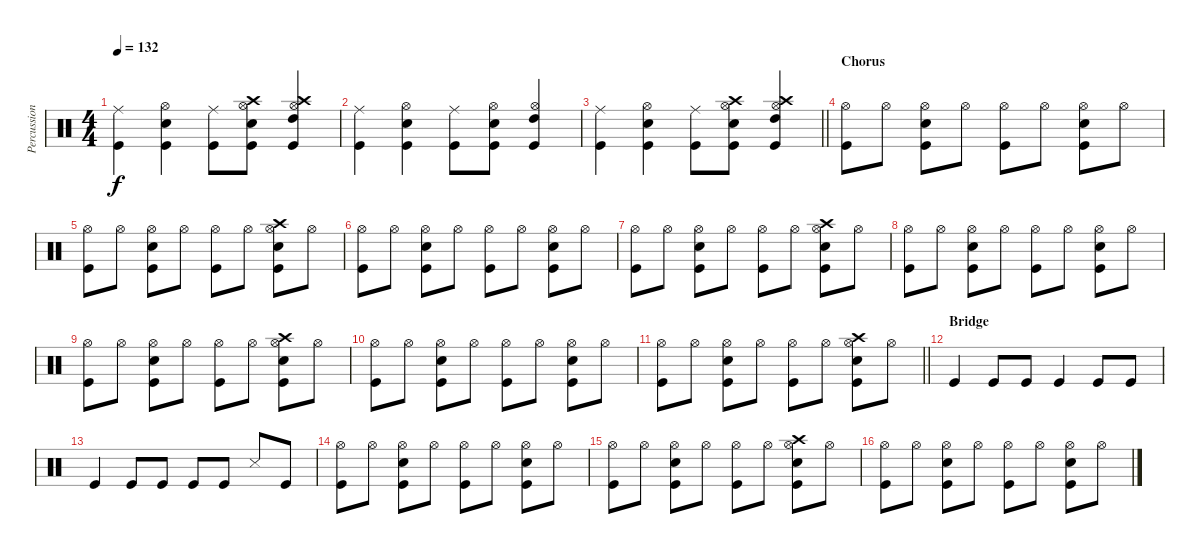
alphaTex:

\track ("Percussions" "Percussion") {instrument percussion}
\staff {score}
\articulation defaults
\ts (4 4)
\tempo 132
\clef neutral
\ks c
("Ride (middle)" "Kick (hit)").4{dy f} ("Snare (hit) 2" "Hi-Hat (open)" "Kick (hit)").4 ("Ride (middle)" "Kick (hit)").8 ("Snare (hit) 2" "Hi-Hat (open)" "Crash high (hit)" "Kick (hit)").8 ("High Tom (hit)" "Hi-Hat (open)" "Crash high (hit)" "Kick (hit)").4 |
("Ride (middle)" "Kick (hit)").4 ("Snare (hit) 2" "Hi-Hat (open)" "Kick (hit)").4 ("Ride (middle)" "Kick (hit)").8 ("Snare (hit) 2" "Hi-Hat (open)" "Kick (hit)").8 ("High Tom (hit)" "Hi-Hat (open)" "Kick (hit)").4 |
\barLineRight lightlight
("Ride (middle)" "Kick (hit)").4 ("Snare (hit) 2" "Hi-Hat (open)" "Kick (hit)").4 ("Ride (middle)" "Kick (hit)").8 ("Snare (hit) 2" "Hi-Hat (open)" "Crash high (hit)" "Kick (hit)").8 ("High Tom (hit)" "Hi-Hat (open)" "Crash high (hit)" "Kick (hit)").4 |
\section ("" "Chorus")
("Hi-Hat (open)" "Kick (hit)").8 "Hi-Hat (open)".8 ("Snare (hit) 2" "Hi-Hat (open)" "Kick (hit)").8 "Hi-Hat (open)".8 ("Hi-Hat (open)" "Kick (hit)").8 "Hi-Hat (open)".8 ("Snare (hit) 2" "Hi-Hat (open)" "Kick (hit)").8 "Hi-Hat (open)".8 |
("Hi-Hat (open)" "Kick (hit)").8 "Hi-Hat (open)".8 ("Snare (hit) 2" "Hi-Hat (open)" "Kick (hit)").8 "Hi-Hat (open)".8 ("Hi-Hat (open)" "Kick (hit)").8 "Hi-Hat (open)".8 ("Snare (hit) 2" "Hi-Hat (open)" "Crash high (hit)" "Kick (hit)").8 "Hi-Hat (open)".8 |
("Hi-Hat (open)" "Kick (hit)").8 "Hi-Hat (open)".8 ("Snare (hit) 2" "Hi-Hat (open)" "Kick (hit)").8 "Hi-Hat (open)".8 ("Hi-Hat (open)" "Kick (hit)").8 "Hi-Hat (open)".8 ("Snare (hit) 2" "Hi-Hat (open)" "Kick (hit)").8 "Hi-Hat (open)".8 |
("Hi-Hat (open)" "Kick (hit)").8 "Hi-Hat (open)".8 ("Snare (hit) 2" "Hi-Hat (open)" "Kick (hit)").8 "Hi-Hat (open)".8 ("Hi-Hat (open)" "Kick (hit)").8 "Hi-Hat (open)".8 ("Snare (hit) 2" "Hi-Hat (open)" "Crash high (hit)" "Kick (hit)").8 "Hi-Hat (open)".8 |
("Hi-Hat (open)" "Kick (hit)").8 "Hi-Hat (open)".8 ("Snare (hit) 2" "Hi-Hat (open)" "Kick (hit)").8 "Hi-Hat (open)".8 ("Hi-Hat (open)" "Kick (hit)").8 "Hi-Hat (open)".8 ("Snare (hit) 2" "Hi-Hat (open)" "Kick (hit)").8 "Hi-Hat (open)".8 |
("Hi-Hat (open)" "Kick (hit)").8 "Hi-Hat (open)".8 ("Snare (hit) 2" "Hi-Hat (open)" "Kick (hit)").8 "Hi-Hat (open)".8 ("Hi-Hat (open)" "Kick (hit)").8 "Hi-Hat (open)".8 ("Snare (hit) 2" "Hi-Hat (open)" "Crash high (hit)" "Kick (hit)").8 "Hi-Hat (open)".8 |
("Hi-Hat (open)" "Kick (hit)").8 "Hi-Hat (open)".8 ("Snare (hit) 2" "Hi-Hat (open)" "Kick (hit)").8 "Hi-Hat (open)".8 ("Hi-Hat (open)" "Kick (hit)").8 "Hi-Hat (open)".8 ("Snare (hit) 2" "Hi-Hat (open)" "Kick (hit)").8 "Hi-Hat (open)".8 |
\barLineRight lightlight
("Hi-Hat (open)" "Kick (hit)").8 "Hi-Hat (open)".8 ("Snare (hit) 2" "Hi-Hat (open)" "Kick (hit)").8 "Hi-Hat (open)".8 ("Hi-Hat (open)" "Kick (hit)").8 "Hi-Hat (open)".8 ("Snare (hit) 2" "Hi-Hat (open)" "Crash high (hit)" "Kick (hit)").8 "Hi-Hat (open)".8 |
\section ("" "Bridge")
"Kick (hit)".4 "Kick (hit)".8 "Kick (hit)".8 "Kick (hit)".4 "Kick (hit)".8 "Kick (hit)".8 |
"Kick (hit)".4 "Kick (hit)".8 "Kick (hit)".8 "Kick (hit)".8 "Kick (hit)".8 "Snare (side stick) 3".8 "Kick (hit)".8 |
("Hi-Hat (open)" "Kick (hit)").8 "Hi-Hat (open)".8 ("Snare (hit) 2" "Hi-Hat (open)" "Kick (hit)").8 "Hi-Hat (open)".8 ("Hi-Hat (open)" "Kick (hit)").8 "Hi-Hat (open)".8 ("Snare (hit) 2" "Hi-Hat (open)" "Kick (hit)").8 "Hi-Hat (open)".8 |
("Hi-Hat (open)" "Kick (hit)").8 "Hi-Hat (open)".8 ("Snare (hit) 2" "Hi-Hat (open)" "Kick (hit)").8 "Hi-Hat (open)".8 ("Hi-Hat (open)" "Kick (hit)").8 "Hi-Hat (open)".8 ("Snare (hit) 2" "Hi-Hat (open)" "Crash high (hit)" "Kick (hit)").8 "Hi-Hat (open)".8 |
("Hi-Hat (open)" "Kick (hit)").8 "Hi-Hat (open)".8 ("Snare (hit) 2" "Hi-Hat (open)" "Kick (hit)").8 "Hi-Hat (open)".8 ("Hi-Hat (open)" "Kick (hit)").8 "Hi-Hat (open)".8 ("Snare (hit) 2" "Hi-Hat (open)" "Kick (hit)").8 "Hi-Hat (open)".8
